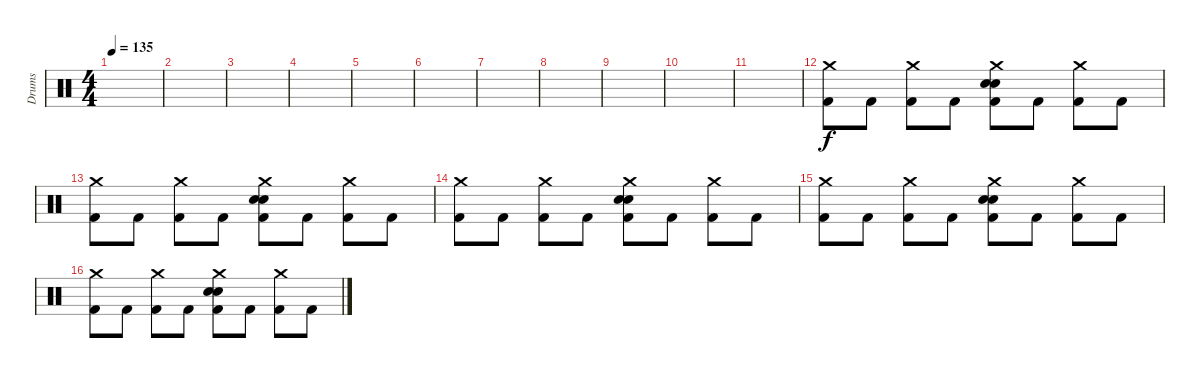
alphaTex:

\track ("Drums" "Drums") {instrument percussion}
\staff {score}
\articulation defaults
\ts (4 4)
\tempo 135
\clef neutral
\ks c
|
|
|
|
|
|
|
|
|
|
|
("Crash medium (hit)" "Kick (hit) 2").8 "Kick (hit) 2".8 ("Crash medium (hit)" "Kick (hit) 2").8 "Kick (hit) 2".8 ("Crash medium (hit)" "Electric Snare (hit)" "Snare (hit) 2" "Kick (hit) 2").8 "Kick (hit) 2".8 ("Crash medium (hit)" "Kick (hit) 2").8 "Kick (hit) 2".8 |
("Crash medium (hit)" "Kick (hit) 2").8 "Kick (hit) 2".8 ("Crash medium (hit)" "Kick (hit) 2").8 "Kick (hit) 2".8 ("Crash medium (hit)" "Electric Snare (hit)" "Snare (hit) 2" "Kick (hit) 2").8 "Kick (hit) 2".8 ("Crash medium (hit)" "Kick (hit) 2").8 "Kick (hit) 2".8 |
("Crash medium (hit)" "Kick (hit) 2").8 "Kick (hit) 2".8 ("Crash medium (hit)" "Kick (hit) 2").8 "Kick (hit) 2".8 ("Crash medium (hit)" "Electric Snare (hit)" "Snare (hit) 2" "Kick (hit) 2").8 "Kick (hit) 2".8 ("Crash medium (hit)" "Kick (hit) 2").8 "Kick (hit) 2".8 |
("Crash medium (hit)" "Kick (hit) 2").8 "Kick (hit) 2".8 ("Crash medium (hit)" "Kick (hit) 2").8 "Kick (hit) 2".8 ("Crash medium (hit)" "Electric Snare (hit)" "Snare (hit) 2" "Kick (hit) 2").8 "Kick (hit) 2".8 ("Crash medium (hit)" "Kick (hit) 2").8 "Kick (hit) 2".8 |
("Crash medium (hit)" "Kick (hit) 2").8 "Kick (hit) 2".8 ("Crash medium (hit)" "Kick (hit) 2").8 "Kick (hit) 2".8 ("Crash medium (hit)" "Electric Snare (hit)" "Snare (hit) 2" "Kick (hit) 2").8 "Kick (hit) 2".8 ("Crash medium (hit)" "Kick (hit) 2").8 "Kick (hit) 2".8
